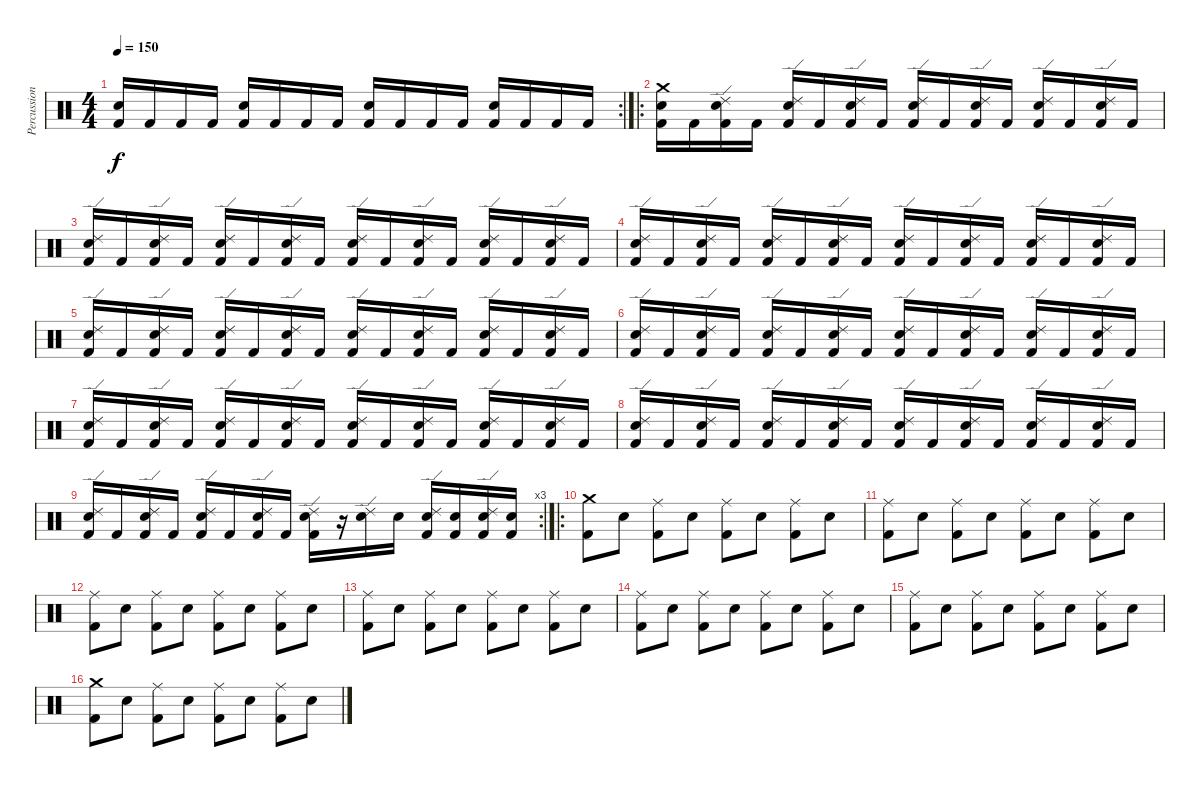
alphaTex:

\track ("Percussions" "Percussion") {instrument percussion}
\staff {score}
\articulation defaults
\rc 2
\ts (4 4)
\tempo 150
\clef neutral
\ks c
("Snare (hit) 2" "Kick (hit) 2").16{dy f} "Kick (hit) 2".16 "Kick (hit) 2".16 "Kick (hit) 2".16 ("Snare (hit) 2" "Kick (hit) 2").16 "Kick (hit) 2".16 "Kick (hit) 2".16 "Kick (hit) 2".16 ("Snare (hit) 2" "Kick (hit) 2").16 "Kick (hit) 2".16 "Kick (hit) 2".16 "Kick (hit) 2".16 ("Snare (hit) 2" "Kick (hit) 2").16 "Kick (hit) 2".16 "Kick (hit) 2".16 "Kick (hit) 2".16 |
\ro
("Crash medium (hit)" "Snare (hit) 2" "Kick (hit) 2").16 "Kick (hit) 2".16 ("Ride (edge) 2" "Snare (hit) 2" "Kick (hit) 2").16 "Kick (hit) 2".16 ("Ride (edge) 2" "Snare (hit) 2" "Kick (hit) 2").16 "Kick (hit) 2".16 ("Ride (edge) 2" "Snare (hit) 2" "Kick (hit) 2").16 "Kick (hit) 2".16 ("Ride (edge) 2" "Snare (hit) 2" "Kick (hit) 2").16 "Kick (hit) 2".16 ("Ride (edge) 2" "Snare (hit) 2" "Kick (hit) 2").16 "Kick (hit) 2".16 ("Ride (edge) 2" "Snare (hit) 2" "Kick (hit) 2").16 "Kick (hit) 2".16 ("Ride (edge) 2" "Snare (hit) 2" "Kick (hit) 2").16 "Kick (hit) 2".16 |
("Ride (edge) 2" "Snare (hit) 2" "Kick (hit) 2").16 "Kick (hit) 2".16 ("Ride (edge) 2" "Snare (hit) 2" "Kick (hit) 2").16 "Kick (hit) 2".16 ("Ride (edge) 2" "Snare (hit) 2" "Kick (hit) 2").16 "Kick (hit) 2".16 ("Ride (edge) 2" "Snare (hit) 2" "Kick (hit) 2").16 "Kick (hit) 2".16 ("Ride (edge) 2" "Snare (hit) 2" "Kick (hit) 2").16 "Kick (hit) 2".16 ("Ride (edge) 2" "Snare (hit) 2" "Kick (hit) 2").16 "Kick (hit) 2".16 ("Ride (edge) 2" "Snare (hit) 2" "Kick (hit) 2").16 "Kick (hit) 2".16 ("Ride (edge) 2" "Snare (hit) 2" "Kick (hit) 2").16 "Kick (hit) 2".16 |
("Ride (edge) 2" "Snare (hit) 2" "Kick (hit) 2").16 "Kick (hit) 2".16 ("Ride (edge) 2" "Snare (hit) 2" "Kick (hit) 2").16 "Kick (hit) 2".16 ("Ride (edge) 2" "Snare (hit) 2" "Kick (hit) 2").16 "Kick (hit) 2".16 ("Ride (edge) 2" "Snare (hit) 2" "Kick (hit) 2").16 "Kick (hit) 2".16 ("Ride (edge) 2" "Snare (hit) 2" "Kick (hit) 2").16 "Kick (hit) 2".16 ("Ride (edge) 2" "Snare (hit) 2" "Kick (hit) 2").16 "Kick (hit) 2".16 ("Ride (edge) 2" "Snare (hit) 2" "Kick (hit) 2").16 "Kick (hit) 2".16 ("Ride (edge) 2" "Snare (hit) 2" "Kick (hit) 2").16 "Kick (hit) 2".16 |
("Ride (edge) 2" "Snare (hit) 2" "Kick (hit) 2").16 "Kick (hit) 2".16 ("Ride (edge) 2" "Snare (hit) 2" "Kick (hit) 2").16 "Kick (hit) 2".16 ("Ride (edge) 2" "Snare (hit) 2" "Kick (hit) 2").16 "Kick (hit) 2".16 ("Ride (edge) 2" "Snare (hit) 2" "Kick (hit) 2").16 "Kick (hit) 2".16 ("Ride (edge) 2" "Snare (hit) 2" "Kick (hit) 2").16 "Kick (hit) 2".16 ("Ride (edge) 2" "Snare (hit) 2" "Kick (hit) 2").16 "Kick (hit) 2".16 ("Ride (edge) 2" "Snare (hit) 2" "Kick (hit) 2").16 "Kick (hit) 2".16 ("Ride (edge) 2" "Snare (hit) 2" "Kick (hit) 2").16 "Kick (hit) 2".16 |
("Ride (edge) 2" "Snare (hit) 2" "Kick (hit) 2").16 "Kick (hit) 2".16 ("Ride (edge) 2" "Snare (hit) 2" "Kick (hit) 2").16 "Kick (hit) 2".16 ("Ride (edge) 2" "Snare (hit) 2" "Kick (hit) 2").16 "Kick (hit) 2".16 ("Ride (edge) 2" "Snare (hit) 2" "Kick (hit) 2").16 "Kick (hit) 2".16 ("Ride (edge) 2" "Snare (hit) 2" "Kick (hit) 2").16 "Kick (hit) 2".16 ("Ride (edge) 2" "Snare (hit) 2" "Kick (hit) 2").16 "Kick (hit) 2".16 ("Ride (edge) 2" "Snare (hit) 2" "Kick (hit) 2").16 "Kick (hit) 2".16 ("Ride (edge) 2" "Snare (hit) 2" "Kick (hit) 2").16 "Kick (hit) 2".16 |
("Ride (edge) 2" "Snare (hit) 2" "Kick (hit) 2").16 "Kick (hit) 2".16 ("Ride (edge) 2" "Snare (hit) 2" "Kick (hit) 2").16 "Kick (hit) 2".16 ("Ride (edge) 2" "Snare (hit) 2" "Kick (hit) 2").16 "Kick (hit) 2".16 ("Ride (edge) 2" "Snare (hit) 2" "Kick (hit) 2").16 "Kick (hit) 2".16 ("Ride (edge) 2" "Snare (hit) 2" "Kick (hit) 2").16 "Kick (hit) 2".16 ("Ride (edge) 2" "Snare (hit) 2" "Kick (hit) 2").16 "Kick (hit) 2".16 ("Ride (edge) 2" "Snare (hit) 2" "Kick (hit) 2").16 "Kick (hit) 2".16 ("Ride (edge) 2" "Snare (hit) 2" "Kick (hit) 2").16 "Kick (hit) 2".16 |
("Ride (edge) 2" "Snare (hit) 2" "Kick (hit) 2").16 "Kick (hit) 2".16 ("Ride (edge) 2" "Snare (hit) 2" "Kick (hit) 2").16 "Kick (hit) 2".16 ("Ride (edge) 2" "Snare (hit) 2" "Kick (hit) 2").16 "Kick (hit) 2".16 ("Ride (edge) 2" "Snare (hit) 2" "Kick (hit) 2").16 "Kick (hit) 2".16 ("Ride (edge) 2" "Snare (hit) 2" "Kick (hit) 2").16 "Kick (hit) 2".16 ("Ride (edge) 2" "Snare (hit) 2" "Kick (hit) 2").16 "Kick (hit) 2".16 ("Ride (edge) 2" "Snare (hit) 2" "Kick (hit) 2").16 "Kick (hit) 2".16 ("Ride (edge) 2" "Snare (hit) 2" "Kick (hit) 2").16 "Kick (hit) 2".16 |
\rc 3
("Ride (edge) 2" "Snare (hit) 2" "Kick (hit) 2").16 "Kick (hit) 2".16 ("Ride (edge) 2" "Snare (hit) 2" "Kick (hit) 2").16 "Kick (hit) 2".16 ("Ride (edge) 2" "Snare (hit) 2" "Kick (hit) 2").16 "Kick (hit) 2".16 ("Ride (edge) 2" "Snare (hit) 2" "Kick (hit) 2").16 "Kick (hit) 2".16 ("Ride (edge) 2" "Snare (hit) 2" "Kick (hit) 2").16 r.16 ("Ride (edge) 2" "Snare (hit) 2").16 "Snare (hit) 2".16 ("Ride (edge) 2" "Snare (hit) 2" "Kick (hit) 2").16 ("Snare (hit) 2" "Kick (hit) 2").16 ("Ride (edge) 2" "Snare (hit) 2" "Kick (hit) 2").16 ("Snare (hit) 2" "Kick (hit) 2").16 |
\ro
("Crash medium (hit)" "Kick (hit) 2").8 "Snare (hit) 2".8 ("Ride (middle)" "Kick (hit) 2").8 "Snare (hit) 2".8 ("Ride (middle)" "Kick (hit) 2").8 "Snare (hit) 2".8 ("Ride (middle)" "Kick (hit) 2").8 "Snare (hit) 2".8 |
("Ride (middle)" "Kick (hit) 2").8 "Snare (hit) 2".8 ("Ride (middle)" "Kick (hit) 2").8 "Snare (hit) 2".8 ("Ride (middle)" "Kick (hit) 2").8 "Snare (hit) 2".8 ("Ride (middle)" "Kick (hit) 2").8 "Snare (hit) 2".8 |
("Ride (middle)" "Kick (hit) 2").8 "Snare (hit) 2".8 ("Ride (middle)" "Kick (hit) 2").8 "Snare (hit) 2".8 ("Ride (middle)" "Kick (hit) 2").8 "Snare (hit) 2".8 ("Ride (middle)" "Kick (hit) 2").8 "Snare (hit) 2".8 |
("Ride (middle)" "Kick (hit) 2").8 "Snare (hit) 2".8 ("Ride (middle)" "Kick (hit) 2").8 "Snare (hit) 2".8 ("Ride (middle)" "Kick (hit) 2").8 "Snare (hit) 2".8 ("Ride (middle)" "Kick (hit) 2").8 "Snare (hit) 2".8 |
("Ride (middle)" "Kick (hit) 2").8 "Snare (hit) 2".8 ("Ride (middle)" "Kick (hit) 2").8 "Snare (hit) 2".8 ("Ride (middle)" "Kick (hit) 2").8 "Snare (hit) 2".8 ("Ride (middle)" "Kick (hit) 2").8 "Snare (hit) 2".8 |
("Ride (middle)" "Kick (hit) 2").8 "Snare (hit) 2".8 ("Ride (middle)" "Kick (hit) 2").8 "Snare (hit) 2".8 ("Ride (middle)" "Kick (hit) 2").8 "Snare (hit) 2".8 ("Ride (middle)" "Kick (hit) 2").8 "Snare (hit) 2".8 |
("Crash medium (hit)" "Kick (hit) 2").8 "Snare (hit) 2".8 ("Ride (middle)" "Kick (hit) 2").8 "Snare (hit) 2".8 ("Ride (middle)" "Kick (hit) 2").8 "Snare (hit) 2".8 ("Ride (middle)" "Kick (hit) 2").8 "Snare (hit) 2".8
